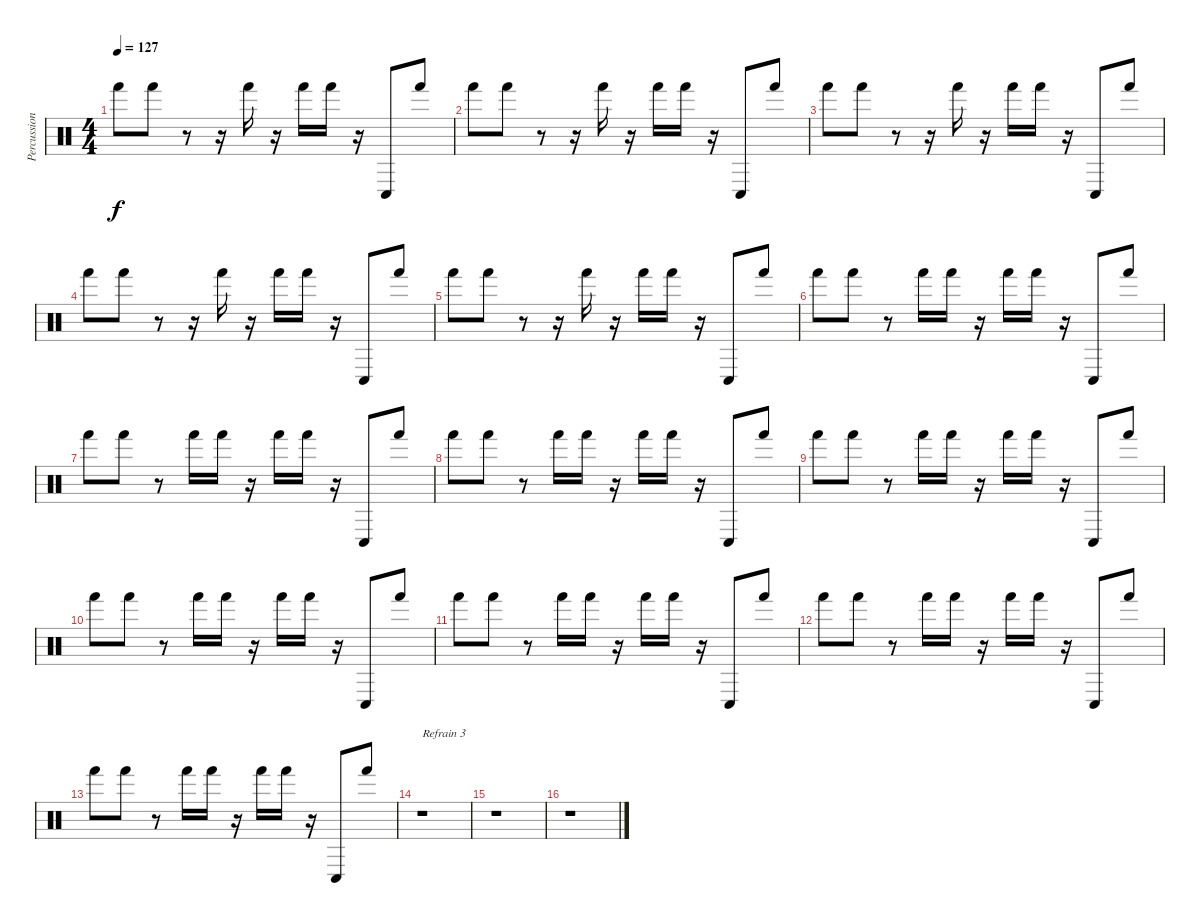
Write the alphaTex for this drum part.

\track ("Percussions" "Percussion") {instrument percussion}
\staff {score}
\articulation defaults
\ts (4 4)
\tempo 127
\clef neutral
\ks c "Hand (hit)".8{dy f} "Hand (hit)".8
r.8 r.16 "Hand (hit)".16 r.16 "Hand (hit)".16 "Hand (hit)".16 r.16 "Conga low (hit)".8 "Hand (hit)".8 |
"Hand (hit)".8 "Hand (hit)".8 r.8 r.16 "Hand (hit)".16 r.16 "Hand (hit)".16 "Hand (hit)".16 r.16 "Conga low (hit)".8 "Hand (hit)".8 |
"Hand (hit)".8 "Hand (hit)".8 r.8 r.16 "Hand (hit)".16 r.16 "Hand (hit)".16 "Hand (hit)".16 r.16 "Conga low (hit)".8 "Hand (hit)".8 |
"Hand (hit)".8 "Hand (hit)".8 r.8 r.16 "Hand (hit)".16 r.16 "Hand (hit)".16 "Hand (hit)".16 r.16 "Conga low (hit)".8 "Hand (hit)".8 |
"Hand (hit)".8 "Hand (hit)".8 r.8 r.16 "Hand (hit)".16 r.16 "Hand (hit)".16 "Hand (hit)".16 r.16 "Conga low (hit)".8 "Hand (hit)".8 |
"Hand (hit)".8 "Hand (hit)".8 r.8 "Hand (hit)".16 "Hand (hit)".16 r.16 "Hand (hit)".16 "Hand (hit)".16 r.16 "Conga low (hit)".8 "Hand (hit)".8 |
"Hand (hit)".8 "Hand (hit)".8 r.8 "Hand (hit)".16 "Hand (hit)".16 r.16 "Hand (hit)".16 "Hand (hit)".16 r.16 "Conga low (hit)".8 "Hand (hit)".8 |
"Hand (hit)".8 "Hand (hit)".8 r.8 "Hand (hit)".16 "Hand (hit)".16 r.16 "Hand (hit)".16 "Hand (hit)".16 r.16 "Conga low (hit)".8 "Hand (hit)".8 |
"Hand (hit)".8 "Hand (hit)".8 r.8 "Hand (hit)".16 "Hand (hit)".16 r.16 "Hand (hit)".16 "Hand (hit)".16 r.16 "Conga low (hit)".8 "Hand (hit)".8 |
"Hand (hit)".8 "Hand (hit)".8 r.8 "Hand (hit)".16 "Hand (hit)".16 r.16 "Hand (hit)".16 "Hand (hit)".16 r.16 "Conga low (hit)".8 "Hand (hit)".8 |
"Hand (hit)".8 "Hand (hit)".8 r.8 "Hand (hit)".16 "Hand (hit)".16 r.16 "Hand (hit)".16 "Hand (hit)".16 r.16 "Conga low (hit)".8 "Hand (hit)".8 |
"Hand (hit)".8 "Hand (hit)".8 r.8 "Hand (hit)".16 "Hand (hit)".16 r.16 "Hand (hit)".16 "Hand (hit)".16 r.16 "Conga low (hit)".8 "Hand (hit)".8 |
"Hand (hit)".8 "Hand (hit)".8 r.8 "Hand (hit)".16 "Hand (hit)".16 r.16 "Hand (hit)".16 "Hand (hit)".16 r.16 "Conga low (hit)".8 "Hand (hit)".8 |
r.1{txt "Refrain 3"} |
r.1 |
r.1
